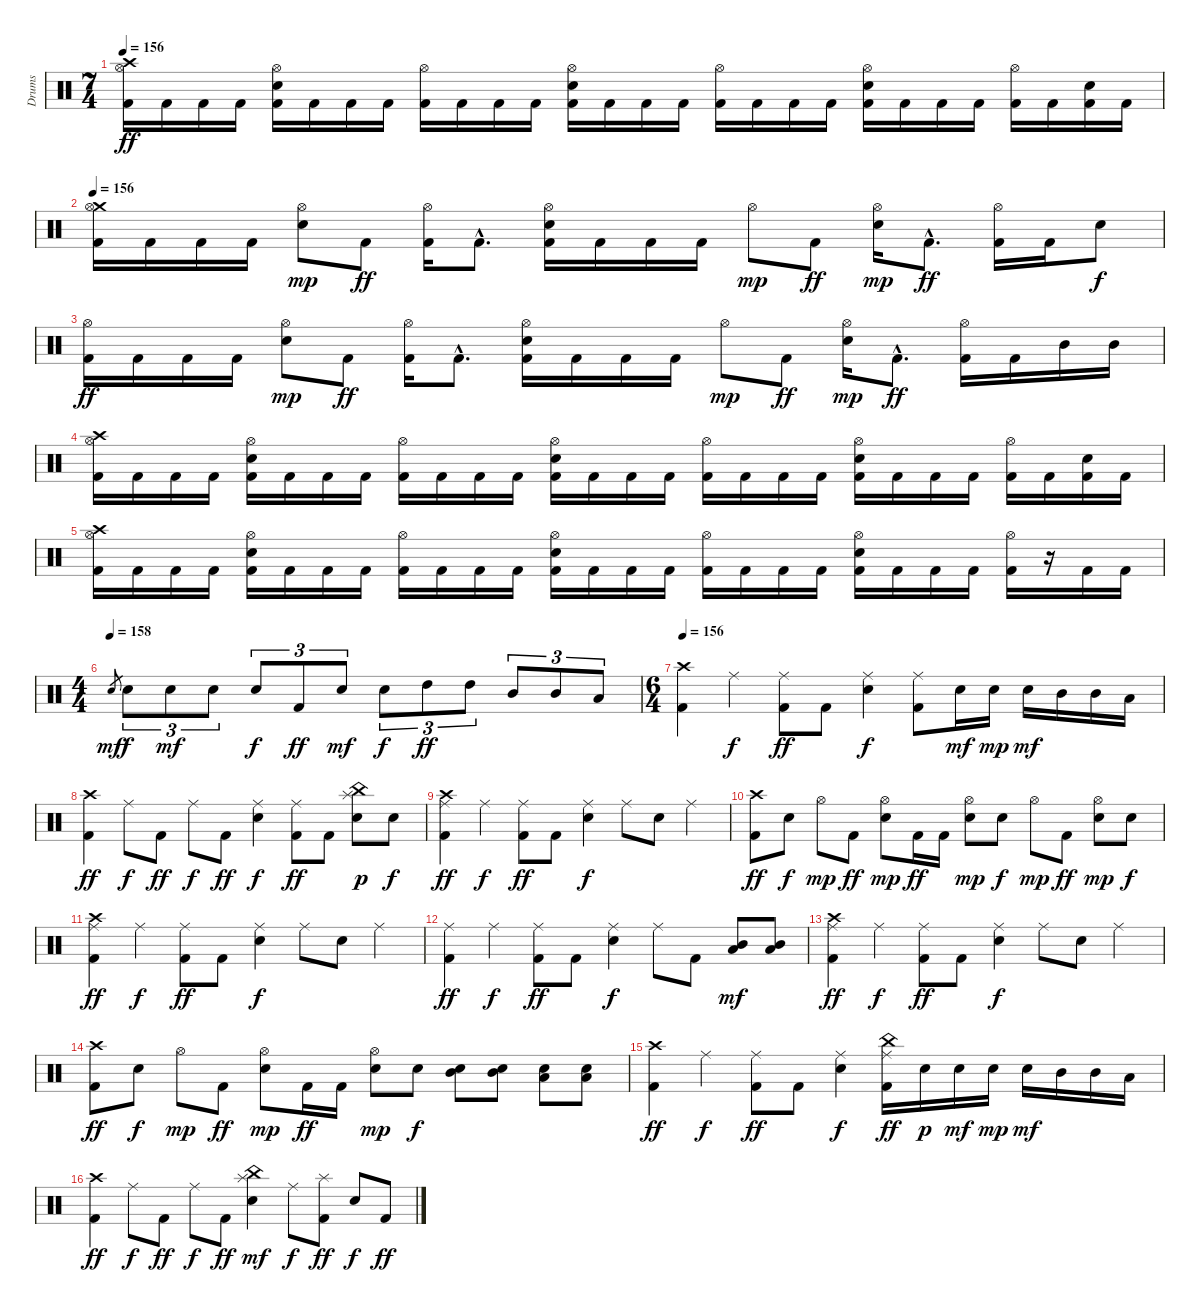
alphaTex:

\track ("Drums" "Drums") {instrument percussion}
\staff {score}
\articulation defaults
\ts (7 4)
\tempo 156
\clef neutral
\ks c
("Crash high (hit)" "Hi-Hat (open)" "Kick (hit) 2").16{dy ff} "Kick (hit) 2".16 "Kick (hit) 2".16 "Kick (hit) 2".16 ("Hi-Hat (open)" "Electric Snare (hit)" "Kick (hit) 2").16 "Kick (hit) 2".16 "Kick (hit) 2".16 "Kick (hit) 2".16 ("Hi-Hat (open)" "Kick (hit) 2").16 "Kick (hit) 2".16 "Kick (hit) 2".16 "Kick (hit) 2".16 ("Hi-Hat (open)" "Electric Snare (hit)" "Kick (hit) 2").16 "Kick (hit) 2".16 "Kick (hit) 2".16 "Kick (hit) 2".16 ("Hi-Hat (open)" "Kick (hit) 2").16 "Kick (hit) 2".16 "Kick (hit) 2".16 "Kick (hit) 2".16 ("Hi-Hat (open)" "Electric Snare (hit)" "Kick (hit) 2").16 "Kick (hit) 2".16 "Kick (hit) 2".16 "Kick (hit) 2".16 ("Hi-Hat (open)" "Kick (hit) 2").16 "Kick (hit) 2".16 ("Electric Snare (hit)" "Kick (hit) 2").16 "Kick (hit) 2".16 |
\tempo 156
("Crash medium (hit)" "Hi-Hat (open)" "Kick (hit) 2").16 "Kick (hit) 2".16 "Kick (hit) 2".16 "Kick (hit) 2".16 ("Hi-Hat (open)" "Electric Snare (hit)").8{dy mp} "Kick (hit) 2".8{dy ff} ("Hi-Hat (open)" "Kick (hit) 2").16 "Kick (hit) 2"{hac}.8{d} ("Hi-Hat (open)" "Electric Snare (hit)" "Kick (hit) 2").16 "Kick (hit) 2".16 "Kick (hit) 2".16 "Kick (hit) 2".16 "Hi-Hat (open)".8{dy mp} "Kick (hit) 2".8{dy ff} ("Hi-Hat (open)" "Electric Snare (hit)").16{dy mp} "Kick (hit) 2"{hac}.8{d dy ff} ("Hi-Hat (open)" "Kick (hit) 2").16 "Kick (hit) 2".16 "Electric Snare (hit)".8{dy f} |
("Hi-Hat (open)" "Kick (hit) 2").16{dy ff} "Kick (hit) 2".16 "Kick (hit) 2".16 "Kick (hit) 2".16 ("Hi-Hat (open)" "Electric Snare (hit)").8{dy mp} "Kick (hit) 2".8{dy ff} ("Hi-Hat (open)" "Kick (hit) 2").16 "Kick (hit) 2"{hac}.8{d} ("Hi-Hat (open)" "Electric Snare (hit)" "Kick (hit) 2").16 "Kick (hit) 2".16 "Kick (hit) 2".16 "Kick (hit) 2".16 "Hi-Hat (open)".8{dy mp} "Kick (hit) 2".8{dy ff} ("Hi-Hat (open)" "Electric Snare (hit)").16{dy mp} "Kick (hit) 2"{hac}.8{d dy ff} ("Hi-Hat (open)" "Kick (hit) 2").16 "Kick (hit) 2".16 "Mid Tom (hit)".16 "Mid Tom (hit)".16 |
("Crash high (hit)" "Hi-Hat (open)" "Kick (hit) 2").16 "Kick (hit) 2".16 "Kick (hit) 2".16 "Kick (hit) 2".16 ("Hi-Hat (open)" "Electric Snare (hit)" "Kick (hit) 2").16 "Kick (hit) 2".16 "Kick (hit) 2".16 "Kick (hit) 2".16 ("Hi-Hat (open)" "Kick (hit) 2").16 "Kick (hit) 2".16 "Kick (hit) 2".16 "Kick (hit) 2".16 ("Hi-Hat (open)" "Electric Snare (hit)" "Kick (hit) 2").16 "Kick (hit) 2".16 "Kick (hit) 2".16 "Kick (hit) 2".16 ("Hi-Hat (open)" "Kick (hit) 2").16 "Kick (hit) 2".16 "Kick (hit) 2".16 "Kick (hit) 2".16 ("Hi-Hat (open)" "Electric Snare (hit)" "Kick (hit) 2").16 "Kick (hit) 2".16 "Kick (hit) 2".16 "Kick (hit) 2".16 ("Hi-Hat (open)" "Kick (hit) 2").16 "Kick (hit) 2".16 ("Electric Snare (hit)" "Kick (hit) 2").16 "Kick (hit) 2".16 |
("Crash high (hit)" "Hi-Hat (open)" "Kick (hit) 2").16 "Kick (hit) 2".16 "Kick (hit) 2".16 "Kick (hit) 2".16 ("Hi-Hat (open)" "Electric Snare (hit)" "Kick (hit) 2").16 "Kick (hit) 2".16 "Kick (hit) 2".16 "Kick (hit) 2".16 ("Hi-Hat (open)" "Kick (hit) 2").16 "Kick (hit) 2".16 "Kick (hit) 2".16 "Kick (hit) 2".16 ("Hi-Hat (open)" "Electric Snare (hit)" "Kick (hit) 2").16 "Kick (hit) 2".16 "Kick (hit) 2".16 "Kick (hit) 2".16 ("Hi-Hat (open)" "Kick (hit) 2").16 "Kick (hit) 2".16 "Kick (hit) 2".16 "Kick (hit) 2".16 ("Hi-Hat (open)" "Electric Snare (hit)" "Kick (hit) 2").16 "Kick (hit) 2".16 "Kick (hit) 2".16 "Kick (hit) 2".16 ("Hi-Hat (open)" "Kick (hit) 2").16 r.16 "Kick (hit) 2".16 "Kick (hit) 2".16 |
\ts (4 4)
\tempo (158)
"Electric Snare (hit)".8{gr dy mf} "Electric Snare (hit)".8{tu (3 2) dy f} "Electric Snare (hit)".8{tu (3 2) dy mf} "Electric Snare (hit)".8{tu (3 2)} "Electric Snare (hit)".8{tu (3 2) dy f} "Kick (hit) 2".8{tu (3 2) dy ff} "Electric Snare (hit)".8{tu (3 2) dy mf} "Electric Snare (hit)".8{tu (3 2) dy f} "High Tom (hit)".8{tu (3 2) dy ff} "High Tom (hit)".8{tu (3 2)} "Mid Tom (hit)".8{tu (3 2)} "Mid Tom (hit)".8{tu (3 2)} "Low Tom (hit)".8{tu (3 2)} |
\ts (6 4)
\tempo 156
("Crash high (hit)" "Kick (hit) 2").4 "Ride (middle)".4{dy f} ("Ride (middle)" "Kick (hit) 2").8{dy ff} "Kick (hit) 2".8 ("Ride (middle)" "Electric Snare (hit)").4{dy f} ("Ride (middle)" "Kick (hit) 2").8 "Electric Snare (hit)".16{dy mf} "Electric Snare (hit)".16{dy mp} "Electric Snare (hit)".16{dy mf} "Mid Tom (hit)".16 "Mid Tom (hit)".16 "Low Tom (hit)".16 |
("Crash high (hit)" "Kick (hit) 2").4{dy ff} "Ride (middle)".8{dy f} "Kick (hit) 2".8{dy ff} "Ride (middle)".8{dy f} "Kick (hit) 2".8{dy ff} ("Ride (middle)" "Electric Snare (hit)").4{dy f} ("Ride (middle)" "Kick (hit) 2").8{dy ff} "Kick (hit) 2".8 ("Splash (hit)" "China (hit)" "Electric Snare (hit)").8{dy p} "Electric Snare (hit)".8{dy f} |
("Crash high (hit)" "Ride (middle)" "Kick (hit) 2").4{dy ff} "Ride (middle)".4{dy f} ("Ride (middle)" "Kick (hit) 2").8{dy ff} "Kick (hit) 2".8 ("Ride (middle)" "Electric Snare (hit)").4{dy f} "Ride (middle)".8 "Electric Snare (hit)".8 "Ride (middle)".4 |
("Crash high (hit)" "Kick (hit) 2").8{dy ff} "Electric Snare (hit)".8{dy f} "Hi-Hat (open)".8{dy mp} "Kick (hit) 2".8{dy ff} ("Hi-Hat (open)" "Electric Snare (hit)").8{dy mp} "Kick (hit) 2".16{dy ff} "Kick (hit) 2".16 ("Hi-Hat (open)" "Electric Snare (hit)").8{dy mp} "Electric Snare (hit)".8{dy f} "Hi-Hat (open)".8{dy mp} "Kick (hit) 2".8{dy ff} ("Hi-Hat (open)" "Electric Snare (hit)").8{dy mp} "Electric Snare (hit)".8{dy f} |
("Crash high (hit)" "Ride (middle)" "Kick (hit) 2").4{dy ff} "Ride (middle)".4{dy f} ("Ride (middle)" "Kick (hit) 2").8{dy ff} "Kick (hit) 2".8 ("Ride (middle)" "Electric Snare (hit)").4{dy f} "Ride (middle)".8 "Electric Snare (hit)".8 "Ride (middle)".4 |
("Ride (middle)" "Kick (hit) 2").4{dy ff} "Ride (middle)".4{dy f} ("Ride (middle)" "Kick (hit) 2").8{dy ff} "Kick (hit) 2".8 ("Ride (middle)" "Electric Snare (hit)").4{dy f} "Ride (middle)".8 "Kick (hit) 2".8 ("Mid Tom (hit)" "Low Tom (hit)").8{dy mf} ("Mid Tom (hit)" "Low Tom (hit)").8 |
("Crash high (hit)" "Ride (middle)" "Kick (hit) 2").4{dy ff} "Ride (middle)".4{dy f} ("Ride (middle)" "Kick (hit) 2").8{dy ff} "Kick (hit) 2".8 ("Ride (middle)" "Electric Snare (hit)").4{dy f} "Ride (middle)".8 "Electric Snare (hit)".8 "Ride (middle)".4 |
("Crash high (hit)" "Kick (hit) 2").8{dy ff} "Electric Snare (hit)".8{dy f} "Hi-Hat (open)".8{dy mp} "Kick (hit) 2".8{dy ff} ("Hi-Hat (open)" "Electric Snare (hit)").8{dy mp} "Kick (hit) 2".16{dy ff} "Kick (hit) 2".16 ("Hi-Hat (open)" "Electric Snare (hit)").8{dy mp} "Electric Snare (hit)".8{dy f} ("Electric Snare (hit)" "Mid Tom (hit)").8 ("Electric Snare (hit)" "Mid Tom (hit)").8 ("Electric Snare (hit)" "Low Tom (hit)").8 ("Electric Snare (hit)" "Low Tom (hit)").8 |
("Crash high (hit)" "Kick (hit) 2").4{dy ff} "Ride (middle)".4{dy f} ("Ride (middle)" "Kick (hit) 2").8{dy ff} "Kick (hit) 2".8 ("Ride (middle)" "Electric Snare (hit)").4{dy f} ("China (hit)" "Ride (middle)" "Kick (hit) 2").16{dy ff} "Electric Snare (hit)".16{dy p} "Electric Snare (hit)".16{dy mf} "Electric Snare (hit)".16{dy mp} "Electric Snare (hit)".16{dy mf} "Mid Tom (hit)".16 "Mid Tom (hit)".16 "Low Tom (hit)".16 |
("Crash high (hit)" "Kick (hit) 2").4{dy ff} "Ride (middle)".8{dy f} "Kick (hit) 2".8{dy ff} "Ride (middle)".8{dy f} "Kick (hit) 2".8{dy ff} ("Splash (hit)" "China (hit)" "Electric Snare (hit)").4{dy mf} "Ride (middle)".8{dy f} ("Splash (hit)" "Kick (hit) 2").8{dy ff} "Electric Snare (hit)".8{dy f} "Kick (hit) 2".8{dy ff}
